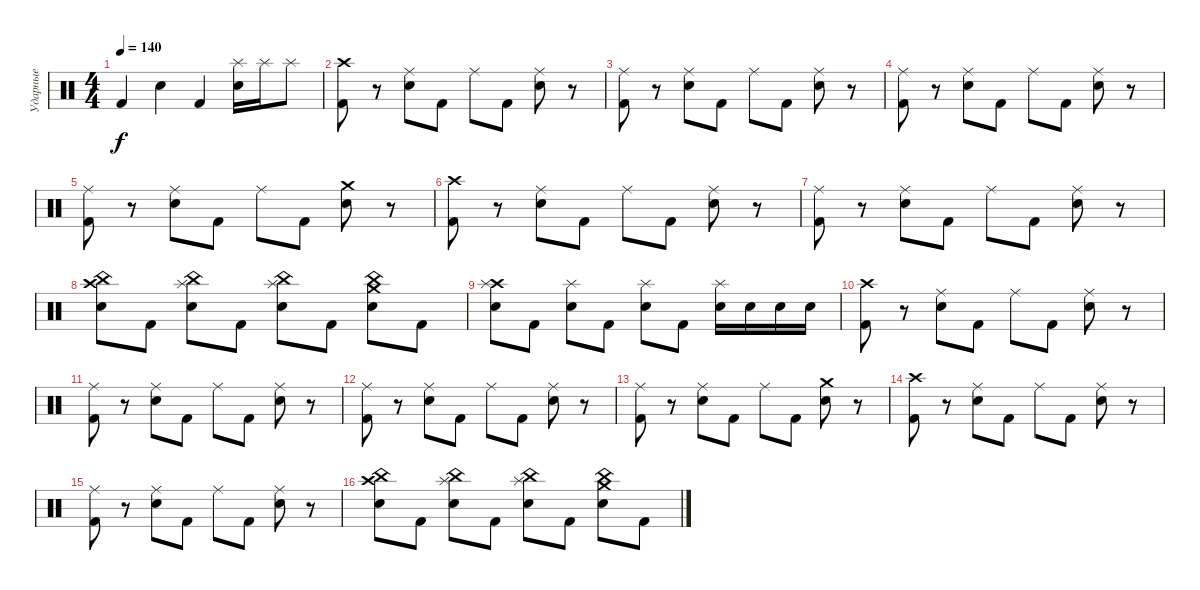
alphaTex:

\track ("Ударные" "Ударные") {instrument percussion}
\staff {score}
\articulation defaults
\ts (4 4)
\tempo 140
\clef neutral
\ks c "Kick (hit) 2".4{dy f} "Electric Snare (hit)".4 "Kick (hit) 2".4
("Splash (hit)" "Electric Snare (hit)").16 "Splash (hit)".16 "Splash (hit)".8 |
("Crash high (hit)" "Kick (hit) 2").8 r.8 ("Ride (middle)" "Electric Snare (hit)").8 "Kick (hit) 2".8 "Ride (middle)".8 "Kick (hit) 2".8 ("Ride (middle)" "Electric Snare (hit)").8 r.8 |
("Ride (middle)" "Kick (hit) 2").8 r.8 ("Ride (middle)" "Electric Snare (hit)").8 "Kick (hit) 2".8 "Ride (middle)".8 "Kick (hit) 2".8 ("Ride (middle)" "Electric Snare (hit)").8 r.8 |
("Ride (middle)" "Kick (hit) 2").8 r.8 ("Ride (middle)" "Electric Snare (hit)").8 "Kick (hit) 2".8 "Ride (middle)".8 "Kick (hit) 2".8 ("Ride (middle)" "Electric Snare (hit)").8 r.8 |
("Ride (middle)" "Kick (hit) 2").8 r.8 ("Ride (middle)" "Electric Snare (hit)").8 "Kick (hit) 2".8 "Ride (middle)".8 "Kick (hit) 2".8 ("Crash medium (hit)" "Electric Snare (hit)").8 r.8 |
("Crash high (hit)" "Kick (hit) 2").8 r.8 ("Ride (middle)" "Electric Snare (hit)").8 "Kick (hit) 2".8 "Ride (middle)".8 "Kick (hit) 2".8 ("Ride (middle)" "Electric Snare (hit)").8 r.8 |
("Ride (middle)" "Kick (hit) 2").8 r.8 ("Ride (middle)" "Electric Snare (hit)").8 "Kick (hit) 2".8 "Ride (middle)".8 "Kick (hit) 2".8 ("Ride (middle)" "Electric Snare (hit)").8 r.8 |
("Crash high (hit)" "China (hit)" "Electric Snare (hit)").8 "Kick (hit) 2".8 ("Splash (hit)" "China (hit)" "Electric Snare (hit)").8 "Kick (hit) 2".8 ("Splash (hit)" "China (hit)" "Electric Snare (hit)").8 "Kick (hit) 2".8 ("Crash medium (hit)" "China (hit)" "Electric Snare (hit)").8 "Kick (hit) 2".8 |
("Crash high (hit)" "Splash (hit)" "Electric Snare (hit)").8 "Kick (hit) 2".8 ("Splash (hit)" "Electric Snare (hit)").8 "Kick (hit) 2".8 ("Splash (hit)" "Electric Snare (hit)").8 "Kick (hit) 2".8 ("Splash (hit)" "Electric Snare (hit)").16 "Electric Snare (hit)".16 "Electric Snare (hit)".16 "Electric Snare (hit)".16 |
("Crash high (hit)" "Kick (hit) 2").8 r.8 ("Ride (middle)" "Electric Snare (hit)").8 "Kick (hit) 2".8 "Ride (middle)".8 "Kick (hit) 2".8 ("Ride (middle)" "Electric Snare (hit)").8 r.8 |
("Ride (middle)" "Kick (hit) 2").8 r.8 ("Ride (middle)" "Electric Snare (hit)").8 "Kick (hit) 2".8 "Ride (middle)".8 "Kick (hit) 2".8 ("Ride (middle)" "Electric Snare (hit)").8 r.8 |
("Ride (middle)" "Kick (hit) 2").8 r.8 ("Ride (middle)" "Electric Snare (hit)").8 "Kick (hit) 2".8 "Ride (middle)".8 "Kick (hit) 2".8 ("Ride (middle)" "Electric Snare (hit)").8 r.8 |
("Ride (middle)" "Kick (hit) 2").8 r.8 ("Ride (middle)" "Electric Snare (hit)").8 "Kick (hit) 2".8 "Ride (middle)".8 "Kick (hit) 2".8 ("Crash medium (hit)" "Electric Snare (hit)").8 r.8 |
("Crash high (hit)" "Kick (hit) 2").8 r.8 ("Ride (middle)" "Electric Snare (hit)").8 "Kick (hit) 2".8 "Ride (middle)".8 "Kick (hit) 2".8 ("Ride (middle)" "Electric Snare (hit)").8 r.8 |
("Ride (middle)" "Kick (hit) 2").8 r.8 ("Ride (middle)" "Electric Snare (hit)").8 "Kick (hit) 2".8 "Ride (middle)".8 "Kick (hit) 2".8 ("Ride (middle)" "Electric Snare (hit)").8 r.8 |
("Crash high (hit)" "China (hit)" "Electric Snare (hit)").8 "Kick (hit) 2".8 ("Splash (hit)" "China (hit)" "Electric Snare (hit)").8 "Kick (hit) 2".8 ("Splash (hit)" "China (hit)" "Electric Snare (hit)").8 "Kick (hit) 2".8 ("Crash medium (hit)" "China (hit)" "Electric Snare (hit)").8 "Kick (hit) 2".8
